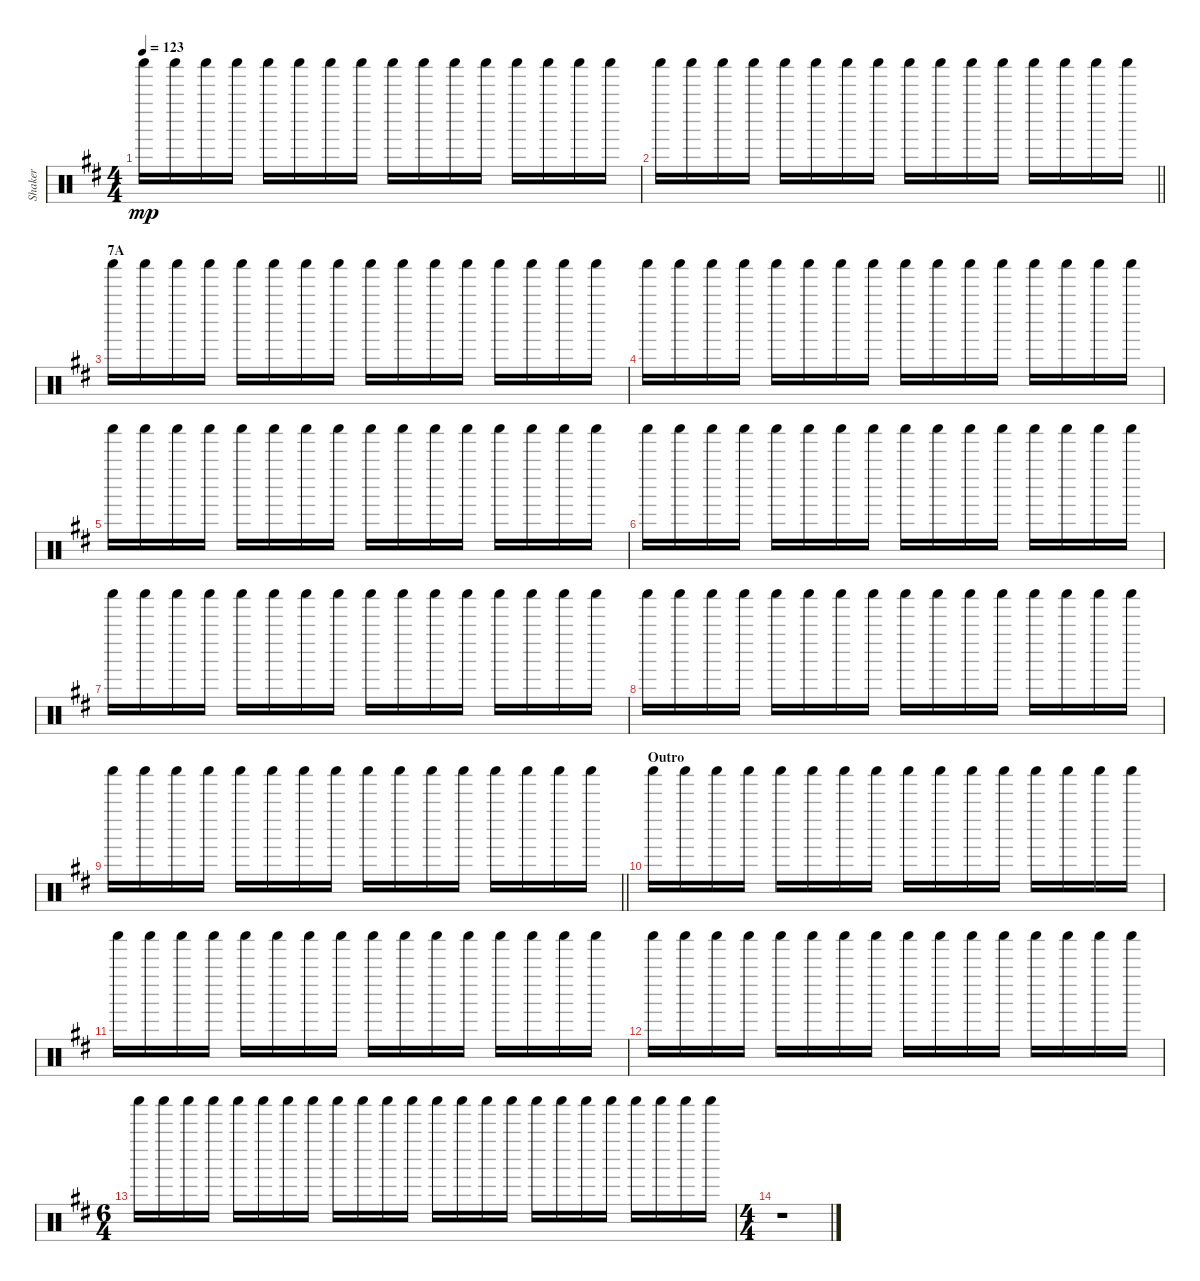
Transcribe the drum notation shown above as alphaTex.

\track ("Shaker" "Shaker") {instrument percussion}
\staff {score}
\articulation defaults
\ts (4 4)
\tempo 123
\clef neutral
\ks d "Shaker (hit)".16{dy mp} "Shaker (hit)".16 "Shaker (hit)".16 "Shaker (hit)".16 "Shaker (hit)".16 "Shaker (hit)".16 "Shaker (hit)".16 "Shaker (hit)".16 "Shaker (hit)".16 "Shaker (hit)".16 "Shaker (hit)".16 "Shaker (hit)".16 "Shaker (hit)".16 "Shaker (hit)".16 "Shaker (hit)".16 "Shaker (hit)".16
|
\barLineRight lightlight "Shaker (hit)".16 "Shaker (hit)".16 "Shaker (hit)".16 "Shaker (hit)".16 "Shaker (hit)".16 "Shaker (hit)".16 "Shaker (hit)".16 "Shaker (hit)".16 "Shaker (hit)".16 "Shaker (hit)".16 "Shaker (hit)".16 "Shaker (hit)".16 "Shaker (hit)".16 "Shaker (hit)".16 "Shaker (hit)".16 "Shaker (hit)".16
|
\section ("" "7A")
"Shaker (hit)".16 "Shaker (hit)".16 "Shaker (hit)".16 "Shaker (hit)".16 "Shaker (hit)".16 "Shaker (hit)".16 "Shaker (hit)".16 "Shaker (hit)".16 "Shaker (hit)".16 "Shaker (hit)".16 "Shaker (hit)".16 "Shaker (hit)".16 "Shaker (hit)".16 "Shaker (hit)".16 "Shaker (hit)".16 "Shaker (hit)".16 |
"Shaker (hit)".16 "Shaker (hit)".16 "Shaker (hit)".16 "Shaker (hit)".16 "Shaker (hit)".16 "Shaker (hit)".16 "Shaker (hit)".16 "Shaker (hit)".16 "Shaker (hit)".16 "Shaker (hit)".16 "Shaker (hit)".16 "Shaker (hit)".16 "Shaker (hit)".16 "Shaker (hit)".16 "Shaker (hit)".16 "Shaker (hit)".16 |
"Shaker (hit)".16 "Shaker (hit)".16 "Shaker (hit)".16 "Shaker (hit)".16 "Shaker (hit)".16 "Shaker (hit)".16 "Shaker (hit)".16 "Shaker (hit)".16 "Shaker (hit)".16 "Shaker (hit)".16 "Shaker (hit)".16 "Shaker (hit)".16 "Shaker (hit)".16 "Shaker (hit)".16 "Shaker (hit)".16 "Shaker (hit)".16 |
"Shaker (hit)".16 "Shaker (hit)".16 "Shaker (hit)".16 "Shaker (hit)".16 "Shaker (hit)".16 "Shaker (hit)".16 "Shaker (hit)".16 "Shaker (hit)".16 "Shaker (hit)".16 "Shaker (hit)".16 "Shaker (hit)".16 "Shaker (hit)".16 "Shaker (hit)".16 "Shaker (hit)".16 "Shaker (hit)".16 "Shaker (hit)".16 |
"Shaker (hit)".16 "Shaker (hit)".16 "Shaker (hit)".16 "Shaker (hit)".16 "Shaker (hit)".16 "Shaker (hit)".16 "Shaker (hit)".16 "Shaker (hit)".16 "Shaker (hit)".16 "Shaker (hit)".16 "Shaker (hit)".16 "Shaker (hit)".16 "Shaker (hit)".16 "Shaker (hit)".16 "Shaker (hit)".16 "Shaker (hit)".16 |
"Shaker (hit)".16 "Shaker (hit)".16 "Shaker (hit)".16 "Shaker (hit)".16 "Shaker (hit)".16 "Shaker (hit)".16 "Shaker (hit)".16 "Shaker (hit)".16 "Shaker (hit)".16 "Shaker (hit)".16 "Shaker (hit)".16 "Shaker (hit)".16 "Shaker (hit)".16 "Shaker (hit)".16 "Shaker (hit)".16 "Shaker (hit)".16 |
\barLineRight lightlight "Shaker (hit)".16 "Shaker (hit)".16 "Shaker (hit)".16 "Shaker (hit)".16 "Shaker (hit)".16 "Shaker (hit)".16 "Shaker (hit)".16 "Shaker (hit)".16 "Shaker (hit)".16 "Shaker (hit)".16 "Shaker (hit)".16 "Shaker (hit)".16 "Shaker (hit)".16 "Shaker (hit)".16 "Shaker (hit)".16 "Shaker (hit)".16
|
\section ("" "Outro")
"Shaker (hit)".16 "Shaker (hit)".16 "Shaker (hit)".16 "Shaker (hit)".16 "Shaker (hit)".16 "Shaker (hit)".16 "Shaker (hit)".16 "Shaker (hit)".16 "Shaker (hit)".16 "Shaker (hit)".16 "Shaker (hit)".16 "Shaker (hit)".16 "Shaker (hit)".16 "Shaker (hit)".16 "Shaker (hit)".16 "Shaker (hit)".16 |
"Shaker (hit)".16 "Shaker (hit)".16 "Shaker (hit)".16 "Shaker (hit)".16 "Shaker (hit)".16 "Shaker (hit)".16 "Shaker (hit)".16 "Shaker (hit)".16 "Shaker (hit)".16 "Shaker (hit)".16 "Shaker (hit)".16 "Shaker (hit)".16 "Shaker (hit)".16 "Shaker (hit)".16 "Shaker (hit)".16 "Shaker (hit)".16 |
"Shaker (hit)".16 "Shaker (hit)".16 "Shaker (hit)".16 "Shaker (hit)".16 "Shaker (hit)".16 "Shaker (hit)".16 "Shaker (hit)".16 "Shaker (hit)".16 "Shaker (hit)".16 "Shaker (hit)".16 "Shaker (hit)".16 "Shaker (hit)".16 "Shaker (hit)".16 "Shaker (hit)".16 "Shaker (hit)".16 "Shaker (hit)".16 |
\ts (6 4)
"Shaker (hit)".16 "Shaker (hit)".16 "Shaker (hit)".16 "Shaker (hit)".16 "Shaker (hit)".16 "Shaker (hit)".16 "Shaker (hit)".16 "Shaker (hit)".16 "Shaker (hit)".16 "Shaker (hit)".16 "Shaker (hit)".16 "Shaker (hit)".16 "Shaker (hit)".16 "Shaker (hit)".16 "Shaker (hit)".16 "Shaker (hit)".16 "Shaker (hit)".16 "Shaker (hit)".16 "Shaker (hit)".16 "Shaker (hit)".16 "Shaker (hit)".16 "Shaker (hit)".16 "Shaker (hit)".16 "Shaker (hit)".16 |
\ts (4 4)
r.1
